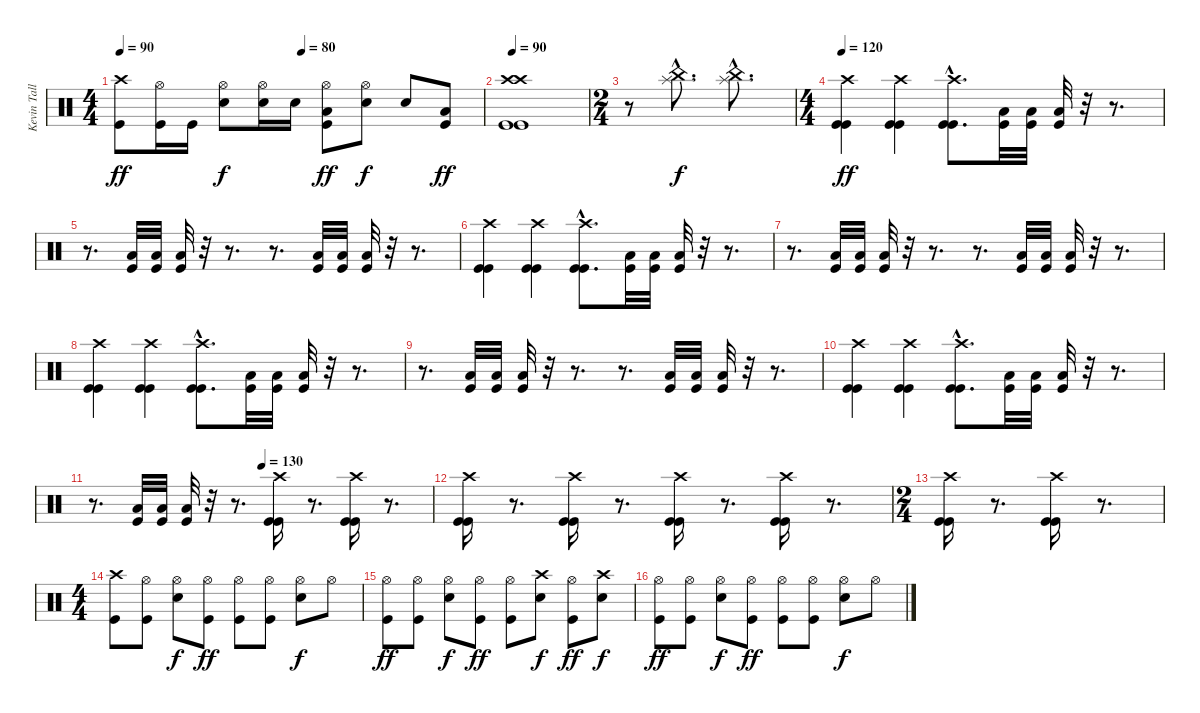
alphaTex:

\track ("Kevin Talley" "Kevin Tall") {instrument percussion}
\staff {score}
\articulation defaults
\ts (4 4)
\tempo 90
\tempo (80 0.5)
\clef neutral
\ks c
("Crash high (hit)" "Kick (hit)").8{dy ff} ("Hi-Hat (open)" "Kick (hit)").16 "Kick (hit)".16 ("Hi-Hat (open)" "Electric Snare (hit)").8{dy f} ("Hi-Hat (open)" "Electric Snare (hit)").16 "Electric Snare (hit)".16 ("Hi-Hat (open)" "Low Floor Tom (hit)" "Kick (hit)").8{dy ff} ("Hi-Hat (open)" "Electric Snare (hit)").8{dy f} "Electric Snare (hit)".8 ("Low Floor Tom (hit)" "Kick (hit)").8{dy ff} |
\tempo 90
("Crash high (hit)" "Crash high (hit)" "Kick (hit)" "Kick (hit)").1 |
\ts (2 4)
r.8 ("China (hit)"{hac} "Splash (hit)"{hac}).8{d dy f} ("China (hit)"{hac} "Splash (hit)"{hac}).8{d} |
\ts (4 4)
\tempo 120
("Crash high (hit)" "Kick (hit)" "Kick (hit)").4{dy ff} ("Crash high (hit)" "Kick (hit)" "Kick (hit)").4 ("Crash high (hit)"{hac} "Kick (hit)"{hac} "Kick (hit)"{hac}).8{d} ("Low Floor Tom (hit)" "Kick (hit)").32 ("Low Floor Tom (hit)" "Kick (hit)").32 ("Low Floor Tom (hit)" "Kick (hit)").32 r.32 r.8{d} |
r.8{d} ("Low Floor Tom (hit)" "Kick (hit)").32 ("Low Floor Tom (hit)" "Kick (hit)").32 ("Low Floor Tom (hit)" "Kick (hit)").32 r.32 r.8{d} r.8{d} ("Low Floor Tom (hit)" "Kick (hit)").32 ("Low Floor Tom (hit)" "Kick (hit)").32 ("Low Floor Tom (hit)" "Kick (hit)").32 r.32 r.8{d} |
("Crash high (hit)" "Kick (hit)" "Kick (hit)").4 ("Crash high (hit)" "Kick (hit)" "Kick (hit)").4 ("Crash high (hit)"{hac} "Kick (hit)"{hac} "Kick (hit)"{hac}).8{d} ("Low Floor Tom (hit)" "Kick (hit)").32 ("Low Floor Tom (hit)" "Kick (hit)").32 ("Low Floor Tom (hit)" "Kick (hit)").32 r.32 r.8{d} |
r.8{d} ("Low Floor Tom (hit)" "Kick (hit)").32 ("Low Floor Tom (hit)" "Kick (hit)").32 ("Low Floor Tom (hit)" "Kick (hit)").32 r.32 r.8{d} r.8{d} ("Low Floor Tom (hit)" "Kick (hit)").32 ("Low Floor Tom (hit)" "Kick (hit)").32 ("Low Floor Tom (hit)" "Kick (hit)").32 r.32 r.8{d} |
("Crash high (hit)" "Kick (hit)" "Kick (hit)").4 ("Crash high (hit)" "Kick (hit)" "Kick (hit)").4 ("Crash high (hit)"{hac} "Kick (hit)"{hac} "Kick (hit)"{hac}).8{d} ("Low Floor Tom (hit)" "Kick (hit)").32 ("Low Floor Tom (hit)" "Kick (hit)").32 ("Low Floor Tom (hit)" "Kick (hit)").32 r.32 r.8{d} |
r.8{d} ("Low Floor Tom (hit)" "Kick (hit)").32 ("Low Floor Tom (hit)" "Kick (hit)").32 ("Low Floor Tom (hit)" "Kick (hit)").32 r.32 r.8{d} r.8{d} ("Low Floor Tom (hit)" "Kick (hit)").32 ("Low Floor Tom (hit)" "Kick (hit)").32 ("Low Floor Tom (hit)" "Kick (hit)").32 r.32 r.8{d} |
("Crash high (hit)" "Kick (hit)" "Kick (hit)").4 ("Crash high (hit)" "Kick (hit)" "Kick (hit)").4 ("Crash high (hit)"{hac} "Kick (hit)"{hac} "Kick (hit)"{hac}).8{d} ("Low Floor Tom (hit)" "Kick (hit)").32 ("Low Floor Tom (hit)" "Kick (hit)").32 ("Low Floor Tom (hit)" "Kick (hit)").32 r.32 r.8{d} |
\tempo (130 0.5)
r.8{d} ("Low Floor Tom (hit)" "Kick (hit)").32 ("Low Floor Tom (hit)" "Kick (hit)").32 ("Low Floor Tom (hit)" "Kick (hit)").32 r.32 r.8{d} ("Crash high (hit)" "Kick (hit)" "Kick (hit)").16 r.8{d volume 0} ("Crash high (hit)" "Kick (hit)" "Kick (hit)").16{volume 16} r.8{d volume 0} |
("Crash high (hit)" "Kick (hit)" "Kick (hit)").16{volume 16} r.8{d volume 0} ("Crash high (hit)" "Kick (hit)" "Kick (hit)").16{volume 16} r.8{d volume 0} ("Crash high (hit)" "Kick (hit)" "Kick (hit)").16{volume 16} r.8{d volume 0} ("Crash high (hit)" "Kick (hit)" "Kick (hit)").16{volume 16} r.8{d volume 0} |
\ts (2 4)
("Crash high (hit)" "Kick (hit)" "Kick (hit)").16{volume 16} r.8{d volume 0} ("Crash high (hit)" "Kick (hit)" "Kick (hit)").16{volume 16} r.8{d} |
\ts (4 4)
("Crash high (hit)" "Kick (hit)").8 ("Hi-Hat (open)" "Kick (hit)").8 ("Hi-Hat (open)" "Electric Snare (hit)").8{dy f} ("Hi-Hat (open)" "Kick (hit)").8{dy ff} ("Hi-Hat (open)" "Kick (hit)").8 ("Hi-Hat (open)" "Kick (hit)").8 ("Hi-Hat (open)" "Electric Snare (hit)").8{dy f} "Hi-Hat (open)".8 |
("Hi-Hat (open)" "Kick (hit)").8{dy ff} ("Hi-Hat (open)" "Kick (hit)").8 ("Hi-Hat (open)" "Electric Snare (hit)").8{dy f} ("Hi-Hat (open)" "Kick (hit)").8{dy ff} ("Hi-Hat (open)" "Kick (hit)").8 ("Crash high (hit)" "Electric Snare (hit)").8{dy f} ("Hi-Hat (open)" "Kick (hit)").8{dy ff} ("Crash high (hit)" "Electric Snare (hit)").8{dy f} |
("Hi-Hat (open)" "Kick (hit)").8{dy ff} ("Hi-Hat (open)" "Kick (hit)").8 ("Hi-Hat (open)" "Electric Snare (hit)").8{dy f} ("Hi-Hat (open)" "Kick (hit)").8{dy ff} ("Hi-Hat (open)" "Kick (hit)").8 ("Hi-Hat (open)" "Kick (hit)").8 ("Hi-Hat (open)" "Electric Snare (hit)").8{dy f} "Hi-Hat (open)".8
